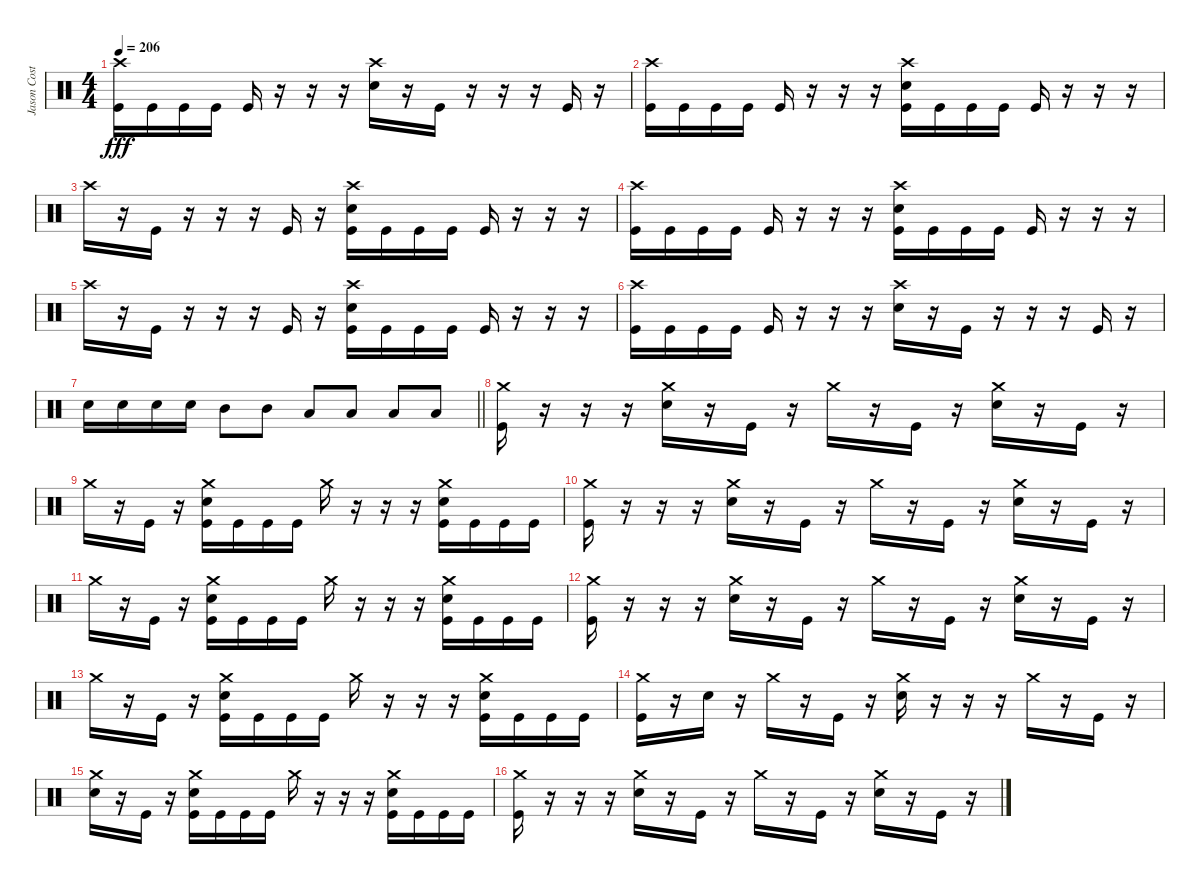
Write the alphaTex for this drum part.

\track ("Jason Costa" "Jason Cost") {instrument percussion}
\staff {score}
\articulation defaults
\ts (4 4)
\tempo 206
\clef neutral
\ks c
("Crash high (hit)" "Kick (hit)").16{dy fff} "Kick (hit)".16 "Kick (hit)".16 "Kick (hit)".16 "Kick (hit)".16 r.16 r.16 r.16 ("Crash high (hit)" "Snare (hit) 2").16 r.16 "Kick (hit)".16 r.16 r.16 r.16 "Kick (hit)".16 r.16 |
("Crash high (hit)" "Kick (hit)").16 "Kick (hit)".16 "Kick (hit)".16 "Kick (hit)".16 "Kick (hit)".16 r.16 r.16 r.16 ("Crash high (hit)" "Snare (hit) 2" "Kick (hit)").16 "Kick (hit)".16 "Kick (hit)".16 "Kick (hit)".16 "Kick (hit)".16 r.16 r.16 r.16 |
"Crash high (hit)".16 r.16 "Kick (hit)".16 r.16 r.16 r.16 "Kick (hit)".16 r.16 ("Crash high (hit)" "Snare (hit) 2" "Kick (hit)").16 "Kick (hit)".16 "Kick (hit)".16 "Kick (hit)".16 "Kick (hit)".16 r.16 r.16 r.16 |
("Crash high (hit)" "Kick (hit)").16 "Kick (hit)".16 "Kick (hit)".16 "Kick (hit)".16 "Kick (hit)".16 r.16 r.16 r.16 ("Crash high (hit)" "Snare (hit) 2" "Kick (hit)").16 "Kick (hit)".16 "Kick (hit)".16 "Kick (hit)".16 "Kick (hit)".16 r.16 r.16 r.16 |
"Crash high (hit)".16 r.16 "Kick (hit)".16 r.16 r.16 r.16 "Kick (hit)".16 r.16 ("Crash high (hit)" "Snare (hit) 2" "Kick (hit)").16 "Kick (hit)".16 "Kick (hit)".16 "Kick (hit)".16 "Kick (hit)".16 r.16 r.16 r.16 |
("Crash high (hit)" "Kick (hit)").16 "Kick (hit)".16 "Kick (hit)".16 "Kick (hit)".16 "Kick (hit)".16 r.16 r.16 r.16 ("Crash high (hit)" "Snare (hit) 2").16 r.16 "Kick (hit)".16 r.16 r.16 r.16 "Kick (hit)".16 r.16 |
\barLineRight lightlight "Snare (hit) 2".16 "Snare (hit) 2".16 "Snare (hit) 2".16 "Snare (hit) 2".16 "Mid Tom (hit)".8 "Mid Tom (hit)".8 "Low Tom (hit)".8 "Low Tom (hit)".8 "Low Tom (hit)".8 "Low Tom (hit)".8
|
("Crash medium (hit)" "Kick (hit)").16 r.16 r.16 r.16 ("Crash medium (hit)" "Snare (hit) 2").16 r.16 "Kick (hit)".16 r.16 "Crash medium (hit)".16 r.16 "Kick (hit)".16 r.16 ("Crash medium (hit)" "Snare (hit) 2").16 r.16 "Kick (hit)".16 r.16 |
"Crash medium (hit)".16 r.16 "Kick (hit)".16 r.16 ("Crash medium (hit)" "Snare (hit) 2" "Kick (hit)").16 "Kick (hit)".16 "Kick (hit)".16 "Kick (hit)".16 "Crash medium (hit)".16 r.16 r.16 r.16 ("Crash medium (hit)" "Snare (hit) 2" "Kick (hit)").16 "Kick (hit)".16 "Kick (hit)".16 "Kick (hit)".16 |
("Crash medium (hit)" "Kick (hit)").16 r.16 r.16 r.16 ("Crash medium (hit)" "Snare (hit) 2").16 r.16 "Kick (hit)".16 r.16 "Crash medium (hit)".16 r.16 "Kick (hit)".16 r.16 ("Crash medium (hit)" "Snare (hit) 2").16 r.16 "Kick (hit)".16 r.16 |
"Crash medium (hit)".16 r.16 "Kick (hit)".16 r.16 ("Crash medium (hit)" "Snare (hit) 2" "Kick (hit)").16 "Kick (hit)".16 "Kick (hit)".16 "Kick (hit)".16 "Crash medium (hit)".16 r.16 r.16 r.16 ("Crash medium (hit)" "Snare (hit) 2" "Kick (hit)").16 "Kick (hit)".16 "Kick (hit)".16 "Kick (hit)".16 |
("Crash medium (hit)" "Kick (hit)").16 r.16 r.16 r.16 ("Crash medium (hit)" "Snare (hit) 2").16 r.16 "Kick (hit)".16 r.16 "Crash medium (hit)".16 r.16 "Kick (hit)".16 r.16 ("Crash medium (hit)" "Snare (hit) 2").16 r.16 "Kick (hit)".16 r.16 |
"Crash medium (hit)".16 r.16 "Kick (hit)".16 r.16 ("Crash medium (hit)" "Snare (hit) 2" "Kick (hit)").16 "Kick (hit)".16 "Kick (hit)".16 "Kick (hit)".16 "Crash medium (hit)".16 r.16 r.16 r.16 ("Crash medium (hit)" "Snare (hit) 2" "Kick (hit)").16 "Kick (hit)".16 "Kick (hit)".16 "Kick (hit)".16 |
("Crash medium (hit)" "Kick (hit)").16 r.16 "Snare (hit) 2".16 r.16 "Crash medium (hit)".16 r.16 "Kick (hit)".16 r.16 ("Crash medium (hit)" "Snare (hit) 2").16 r.16 r.16 r.16 "Crash medium (hit)".16 r.16 "Kick (hit)".16 r.16 |
("Crash medium (hit)" "Snare (hit) 2").16 r.16 "Kick (hit)".16 r.16 ("Crash medium (hit)" "Snare (hit) 2" "Kick (hit)").16 "Kick (hit)".16 "Kick (hit)".16 "Kick (hit)".16 "Crash medium (hit)".16 r.16 r.16 r.16 ("Crash medium (hit)" "Snare (hit) 2" "Kick (hit)").16 "Kick (hit)".16 "Kick (hit)".16 "Kick (hit)".16 |
("Crash medium (hit)" "Kick (hit)").16 r.16 r.16 r.16 ("Crash medium (hit)" "Snare (hit) 2").16 r.16 "Kick (hit)".16 r.16 "Crash medium (hit)".16 r.16 "Kick (hit)".16 r.16 ("Crash medium (hit)" "Snare (hit) 2").16 r.16 "Kick (hit)".16 r.16
